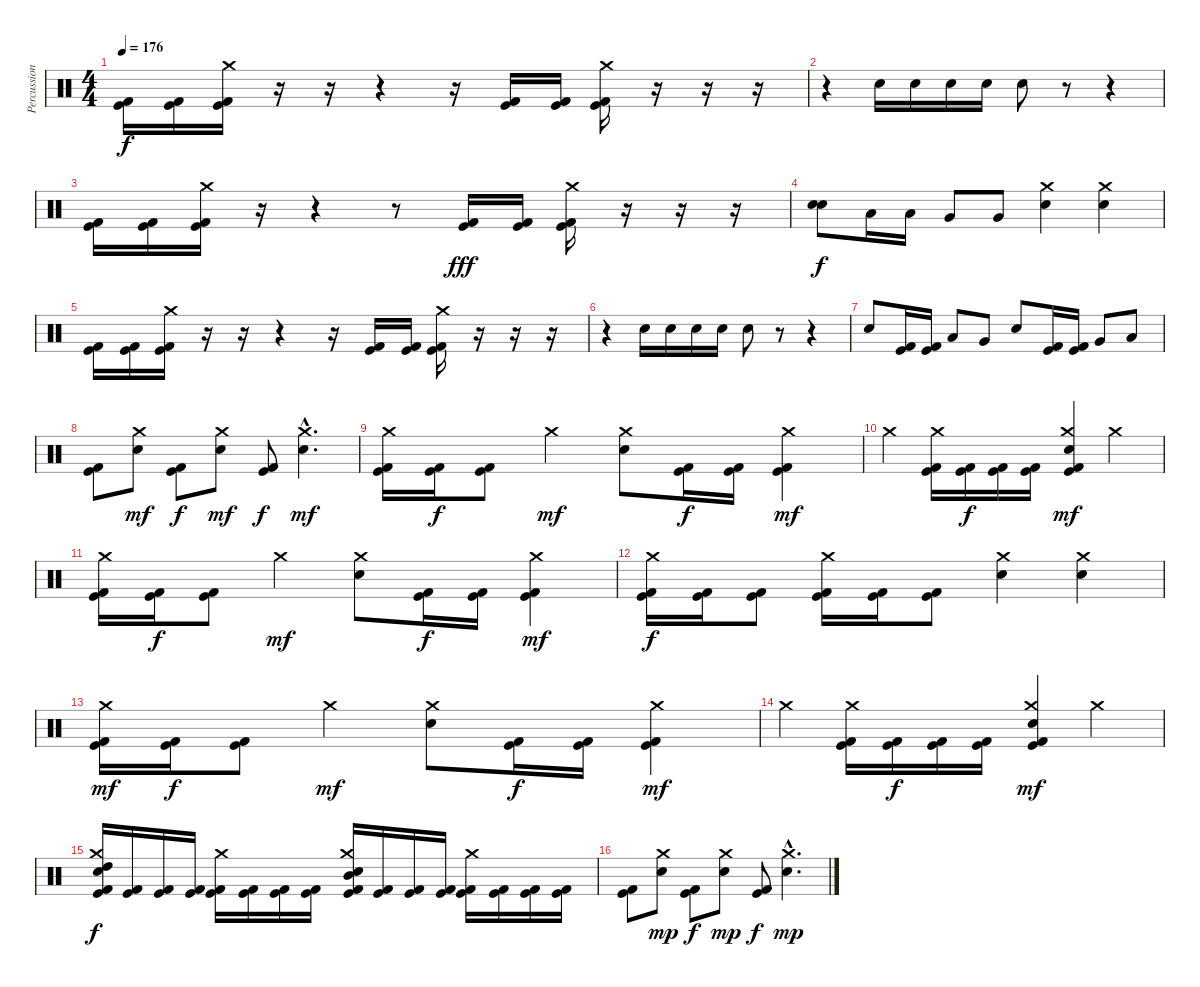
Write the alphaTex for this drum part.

\track ("Percussions" "Percussion") {instrument percussion}
\staff {score}
\articulation defaults
\ts (4 4)
\tempo 176
\clef neutral
\ks c
("Kick (hit)" "Kick (hit) 2").16{dy f} ("Kick (hit)" "Kick (hit) 2").16 ("Crash medium (hit)" "Kick (hit)" "Kick (hit) 2").16 r.16 r.16{volume 0} r.4 r.16 ("Kick (hit)" "Kick (hit) 2").16{volume 12} ("Kick (hit)" "Kick (hit) 2").16 ("Crash medium (hit)" "Kick (hit)" "Kick (hit) 2").16 r.16 r.16{volume 0} r.16 |
r.4 "Electric Snare (hit)".16{volume 13} "Electric Snare (hit)".16 "Electric Snare (hit)".16 "Electric Snare (hit)".16 "Electric Snare (hit)".8 r.8 r.4 |
("Kick (hit)" "Kick (hit) 2").16 ("Kick (hit)" "Kick (hit) 2").16 ("Crash medium (hit)" "Kick (hit)" "Kick (hit) 2").16 r.16 r.4{volume 0} r.8 ("Kick (hit)" "Kick (hit) 2").16{dy fff volume 11} ("Kick (hit)" "Kick (hit) 2").16 ("Crash medium (hit)" "Kick (hit)" "Kick (hit) 2").16 r.16 r.16 r.16 |
("Electric Snare (hit)" "Electric Snare (hit)").8{bd 240 dy f volume 13} "Low Tom (hit)".16 "Low Tom (hit)".16 "Very Low Tom (hit)".8 "Very Low Tom (hit)".8 ("Crash medium (hit)" "Electric Snare (hit)").4 ("Crash medium (hit)" "Electric Snare (hit)").4 |
("Kick (hit)" "Kick (hit) 2").16 ("Kick (hit)" "Kick (hit) 2").16 ("Crash medium (hit)" "Kick (hit)" "Kick (hit) 2").16 r.16 r.16{volume 0} r.4 r.16 ("Kick (hit)" "Kick (hit) 2").16{volume 12} ("Kick (hit)" "Kick (hit) 2").16 ("Crash medium (hit)" "Kick (hit)" "Kick (hit) 2").16 r.16 r.16{volume 0} r.16 |
r.4 "Electric Snare (hit)".16{volume 13} "Electric Snare (hit)".16 "Electric Snare (hit)".16 "Electric Snare (hit)".16 "Electric Snare (hit)".8 r.8 r.4 |
"Electric Snare (hit)".8 ("Kick (hit)" "Kick (hit) 2").16 ("Kick (hit)" "Kick (hit) 2").16 "Low Tom (hit)".8 "Very Low Tom (hit)".8 "Electric Snare (hit)".8 ("Kick (hit)" "Kick (hit) 2").16 ("Kick (hit)" "Kick (hit) 2").16 "Very Low Tom (hit)".8 "Low Floor Tom (hit)".8 |
("Kick (hit)" "Kick (hit) 2").8 ("Crash medium (hit)" "Electric Snare (hit)").8{dy mf} ("Kick (hit)" "Kick (hit) 2").8{dy f} ("Crash medium (hit)" "Electric Snare (hit)").8{dy mf} ("Kick (hit)" "Kick (hit) 2").8{dy f} ("Crash medium (hit)"{hac} "Electric Snare (hit)"{hac}).4{d dy mf} |
("Crash medium (hit)" "Kick (hit)" "Kick (hit) 2").16 ("Kick (hit)" "Kick (hit) 2").16{dy f} ("Kick (hit)" "Kick (hit) 2").8 "Crash medium (hit)".4{dy mf} ("Crash medium (hit)" "Electric Snare (hit)").8 ("Kick (hit)" "Kick (hit) 2").16{dy f} ("Kick (hit)" "Kick (hit) 2").16 ("Crash medium (hit)" "Kick (hit)" "Kick (hit) 2").4{dy mf} |
"Crash medium (hit)".4 ("Crash medium (hit)" "Kick (hit)" "Kick (hit) 2").16 ("Kick (hit)" "Kick (hit) 2").16{dy f} ("Kick (hit)" "Kick (hit) 2").16 ("Kick (hit)" "Kick (hit) 2").16 ("Crash medium (hit)" "Electric Snare (hit)" "Kick (hit)" "Kick (hit) 2").4{dy mf} "Crash medium (hit)".4 |
("Crash medium (hit)" "Kick (hit)" "Kick (hit) 2").16 ("Kick (hit)" "Kick (hit) 2").16{dy f} ("Kick (hit)" "Kick (hit) 2").8 "Crash medium (hit)".4{dy mf} ("Crash medium (hit)" "Electric Snare (hit)").8 ("Kick (hit)" "Kick (hit) 2").16{dy f} ("Kick (hit)" "Kick (hit) 2").16 ("Crash medium (hit)" "Kick (hit)" "Kick (hit) 2").4{dy mf} |
("Crash medium (hit)" "Kick (hit)" "Kick (hit) 2").16{dy f} ("Kick (hit)" "Kick (hit) 2").16 ("Kick (hit)" "Kick (hit) 2").8 ("Crash medium (hit)" "Kick (hit)" "Kick (hit) 2").16 ("Kick (hit)" "Kick (hit) 2").16 ("Kick (hit)" "Kick (hit) 2").8 ("Crash medium (hit)" "Electric Snare (hit)").4 ("Crash medium (hit)" "Electric Snare (hit)").4 |
("Crash medium (hit)" "Kick (hit)" "Kick (hit) 2").16{dy mf} ("Kick (hit)" "Kick (hit) 2").16{dy f} ("Kick (hit)" "Kick (hit) 2").8 "Crash medium (hit)".4{dy mf} ("Crash medium (hit)" "Electric Snare (hit)").8 ("Kick (hit)" "Kick (hit) 2").16{dy f} ("Kick (hit)" "Kick (hit) 2").16 ("Crash medium (hit)" "Kick (hit)" "Kick (hit) 2").4{dy mf} |
"Crash medium (hit)".4 ("Crash medium (hit)" "Kick (hit)" "Kick (hit) 2").16 ("Kick (hit)" "Kick (hit) 2").16{dy f} ("Kick (hit)" "Kick (hit) 2").16 ("Kick (hit)" "Kick (hit) 2").16 ("Crash medium (hit)" "Electric Snare (hit)" "Kick (hit)" "Kick (hit) 2").4{dy mf} "Crash medium (hit)".4 |
("Crash medium (hit)" "Electric Snare (hit)" "High Tom (hit)" "Kick (hit)" "Kick (hit) 2").16{dy f} ("Kick (hit)" "Kick (hit) 2").16 ("Kick (hit)" "Kick (hit) 2").16 ("Kick (hit)" "Kick (hit) 2").16 ("Crash medium (hit)" "Kick (hit)" "Kick (hit) 2").16 ("Kick (hit)" "Kick (hit) 2").16 ("Kick (hit)" "Kick (hit) 2").16 ("Kick (hit)" "Kick (hit) 2").16 ("Crash medium (hit)" "Electric Snare (hit)" "Mid Tom (hit)" "Kick (hit)" "Kick (hit) 2").16 ("Kick (hit)" "Kick (hit) 2").16 ("Kick (hit)" "Kick (hit) 2").16 ("Kick (hit)" "Kick (hit) 2").16 ("Crash medium (hit)" "Kick (hit)" "Kick (hit) 2").16 ("Kick (hit)" "Kick (hit) 2").16 ("Kick (hit)" "Kick (hit) 2").16 ("Kick (hit)" "Kick (hit) 2").16 |
("Kick (hit)" "Kick (hit) 2").8 ("Crash medium (hit)" "Electric Snare (hit)").8{dy mp} ("Kick (hit)" "Kick (hit) 2").8{dy f} ("Crash medium (hit)" "Electric Snare (hit)").8{dy mp} ("Kick (hit)" "Kick (hit) 2").8{dy f} ("Crash medium (hit)"{hac} "Electric Snare (hit)"{hac}).4{d dy mp}
